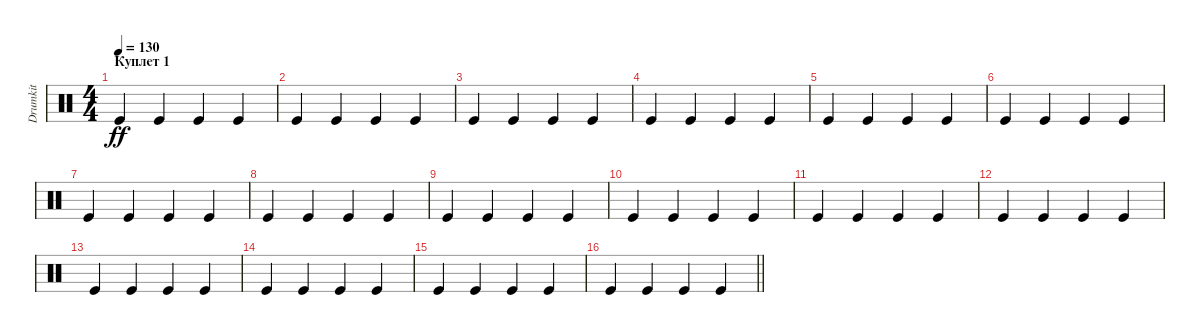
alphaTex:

\track ("Drumkit" "Drumkit") {instrument percussion}
\staff {score}
\articulation defaults
\ts (4 4)
\section ("" "Куплет 1")
\tempo 130
\clef neutral
\ks c "Kick (hit)".4{dy ff} "Kick (hit)".4 "Kick (hit)".4 "Kick (hit)".4
|
"Kick (hit)".4 "Kick (hit)".4 "Kick (hit)".4 "Kick (hit)".4 |
"Kick (hit)".4 "Kick (hit)".4 "Kick (hit)".4 "Kick (hit)".4 |
"Kick (hit)".4 "Kick (hit)".4 "Kick (hit)".4 "Kick (hit)".4 |
"Kick (hit)".4 "Kick (hit)".4 "Kick (hit)".4 "Kick (hit)".4 |
"Kick (hit)".4 "Kick (hit)".4 "Kick (hit)".4 "Kick (hit)".4 |
"Kick (hit)".4 "Kick (hit)".4 "Kick (hit)".4 "Kick (hit)".4 |
"Kick (hit)".4 "Kick (hit)".4 "Kick (hit)".4 "Kick (hit)".4 |
"Kick (hit)".4 "Kick (hit)".4 "Kick (hit)".4 "Kick (hit)".4 |
"Kick (hit)".4 "Kick (hit)".4 "Kick (hit)".4 "Kick (hit)".4 |
"Kick (hit)".4 "Kick (hit)".4 "Kick (hit)".4 "Kick (hit)".4 |
"Kick (hit)".4 "Kick (hit)".4 "Kick (hit)".4 "Kick (hit)".4 |
"Kick (hit)".4 "Kick (hit)".4 "Kick (hit)".4 "Kick (hit)".4 |
"Kick (hit)".4 "Kick (hit)".4 "Kick (hit)".4 "Kick (hit)".4 |
"Kick (hit)".4 "Kick (hit)".4 "Kick (hit)".4 "Kick (hit)".4 |
\barLineRight lightlight "Kick (hit)".4 "Kick (hit)".4 "Kick (hit)".4 "Kick (hit)".4
